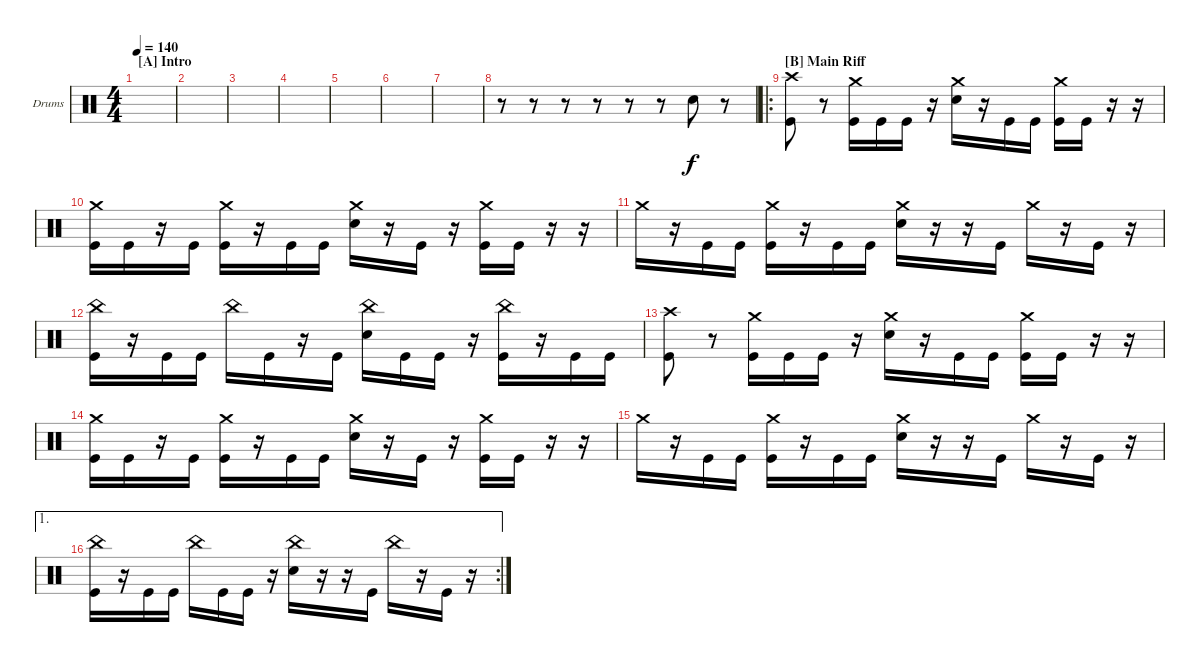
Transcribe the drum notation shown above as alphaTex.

\bracketExtendMode groupsimilarinstruments
\firstSystemTrackNameOrientation horizontal
\otherSystemsTrackNameOrientation horizontal
\track ("Drumkit" "Drums") {instrument percussion}
\staff {score}
\articulation defaults
\ts (4 4)
\section ("A" "Intro")
\tempo 140
\clef neutral
\ks c
|
|
|
|
|
|
|
r.8 r.8 r.8 r.8 r.8 r.8 "Snare (hit) 2".8 r.8 |
\ro
\section ("B" "Main Riff")
("Kick (hit)" "Crash high (hit)").8{dy f} r.8 ("Kick (hit)" "Crash medium (hit)").16 "Kick (hit)".16 "Kick (hit)".16 r.16 ("Snare (hit) 2" "Crash medium (hit)").16 r.16 "Kick (hit)".16 "Kick (hit)".16 ("Kick (hit)" "Crash medium (hit)").16 "Kick (hit)".16 r.16 r.16 |
("Kick (hit)" "Crash medium (hit)").16 "Kick (hit)".16 r.16 "Kick (hit)".16 ("Kick (hit)" "Crash medium (hit)").16 r.16 "Kick (hit)".16 "Kick (hit)".16 ("Snare (hit) 2" "Crash medium (hit)").16 r.16 "Kick (hit)".16 r.16 ("Kick (hit)" "Crash medium (hit)").16 "Kick (hit)".16 r.16 r.16 |
"Crash medium (hit)".16 r.16 "Kick (hit)".16 "Kick (hit)".16 ("Kick (hit)" "Crash medium (hit)").16 r.16 "Kick (hit)".16 "Kick (hit)".16 ("Snare (hit) 2" "Crash medium (hit)").16 r.16 r.16 "Kick (hit)".16 "Crash medium (hit)".16 r.16 "Kick (hit)".16 r.16 |
("Kick (hit)" "China (hit)").16 r.16 "Kick (hit)".16 "Kick (hit)".16 "China (hit)".16 "Kick (hit)".16 r.16 "Kick (hit)".16 ("Snare (hit) 2" "China (hit)").16 "Kick (hit)".16 "Kick (hit)".16 r.16 ("Kick (hit)" "China (hit)").16 r.16 "Kick (hit)".16 "Kick (hit)".16 |
("Kick (hit)" "Crash high (hit)").8 r.8 ("Kick (hit)" "Crash medium (hit)").16 "Kick (hit)".16 "Kick (hit)".16 r.16 ("Snare (hit) 2" "Crash medium (hit)").16 r.16 "Kick (hit)".16 "Kick (hit)".16 ("Kick (hit)" "Crash medium (hit)").16 "Kick (hit)".16 r.16 r.16 |
("Kick (hit)" "Crash medium (hit)").16 "Kick (hit)".16 r.16 "Kick (hit)".16 ("Kick (hit)" "Crash medium (hit)").16 r.16 "Kick (hit)".16 "Kick (hit)".16 ("Snare (hit) 2" "Crash medium (hit)").16 r.16 "Kick (hit)".16 r.16 ("Kick (hit)" "Crash medium (hit)").16 "Kick (hit)".16 r.16 r.16 |
"Crash medium (hit)".16 r.16 "Kick (hit)".16 "Kick (hit)".16 ("Kick (hit)" "Crash medium (hit)").16 r.16 "Kick (hit)".16 "Kick (hit)".16 ("Snare (hit) 2" "Crash medium (hit)").16 r.16 r.16 "Kick (hit)".16 "Crash medium (hit)".16 r.16 "Kick (hit)".16 r.16 |
\ae 1
\rc 2
("Kick (hit)" "China (hit)").16 r.16 "Kick (hit)".16 "Kick (hit)".16 "China (hit)".16 "Kick (hit)".16 "Kick (hit)".16 r.16 ("Snare (hit) 2" "China (hit)").16 r.16 r.16 "Kick (hit)".16 "China (hit)".16 r.16 "Kick (hit)".16 r.16
